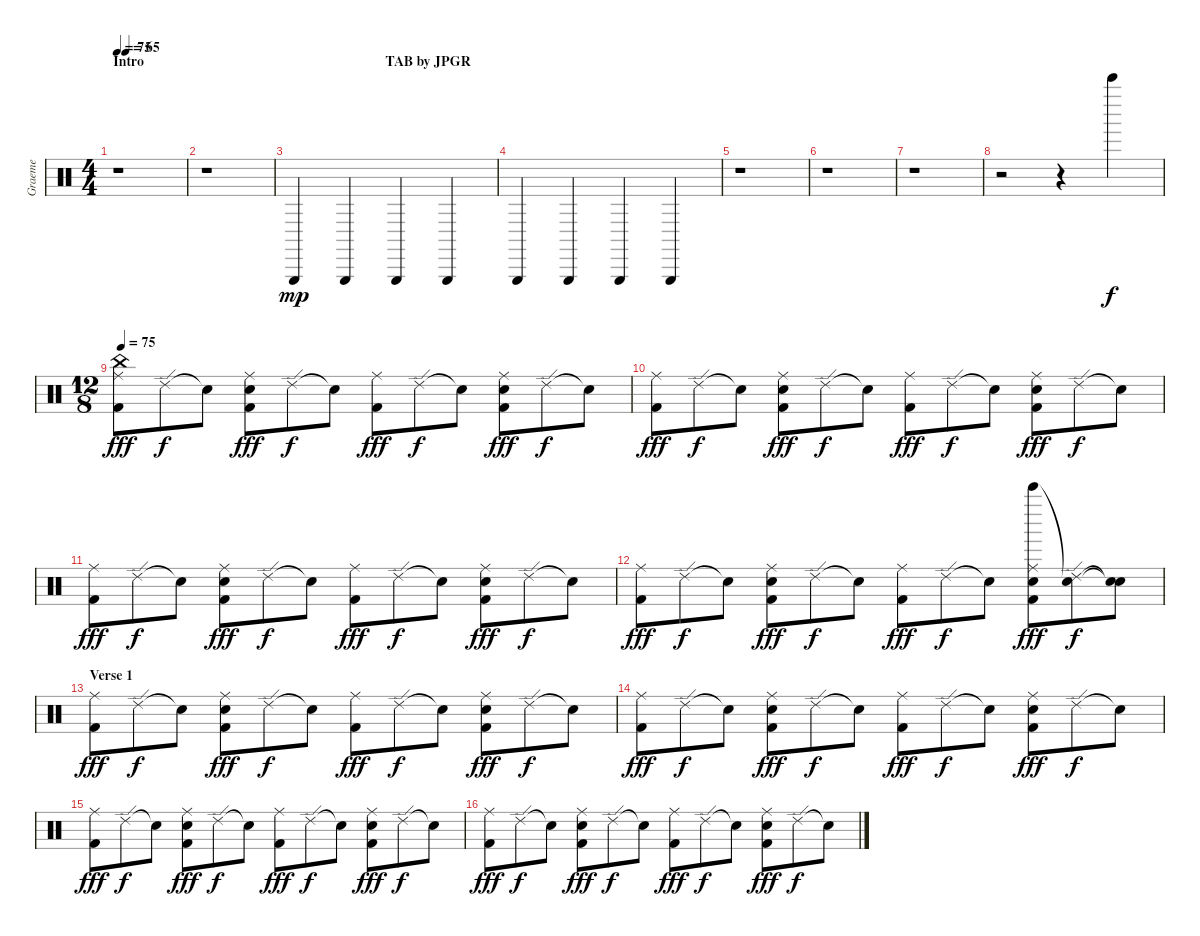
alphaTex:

\track ("Graeme" "Graeme") {instrument percussion}
\staff {score}
\articulation defaults
\ts (4 4)
\section ("" "Intro                                                                     TAB by JPGR")
\tempo 75
\tempo (65 0.125)
\tempo 75
\clef neutral
\ks c
r.1{dy mp} |
r.1 |
"Triangle (hit)".4 "Triangle (hit)".4 "Triangle (hit)".4 "Triangle (hit)".4 |
"Triangle (hit)".4 "Triangle (hit)".4 "Triangle (hit)".4 "Triangle (hit)".4 |
r.1 |
r.1 |
r.1 |
r.2 r.4 "Bell Tree (hit)".4{dy f} |
\ts (12 8)
\tempo 75
("China (hit)" "Ride (middle)" "Kick (hit) 2").8{dy fff} "Ride (edge) 2".8{dy f} "Snare (hit)"{t}.8 ("Ride (middle)" "Electric Snare (hit)" "Kick (hit) 2").8{dy fff} "Ride (edge) 2".8{dy f} "Snare (hit)"{t}.8 ("Ride (middle)" "Kick (hit) 2").8{dy fff} "Ride (edge) 2".8{dy f} "Snare (hit)"{t}.8 ("Ride (middle)" "Electric Snare (hit)" "Kick (hit) 2").8{dy fff} "Ride (edge) 2".8{dy f} "Snare (hit)"{t}.8 |
("Ride (middle)" "Kick (hit) 2").8{dy fff} "Ride (edge) 2".8{dy f} "Snare (hit)"{t}.8 ("Ride (middle)" "Electric Snare (hit)" "Kick (hit) 2").8{dy fff} "Ride (edge) 2".8{dy f} "Snare (hit)"{t}.8 ("Ride (middle)" "Kick (hit) 2").8{dy fff} "Ride (edge) 2".8{dy f} "Snare (hit)"{t}.8 ("Ride (middle)" "Electric Snare (hit)" "Kick (hit) 2").8{dy fff} "Ride (edge) 2".8{dy f} "Snare (hit)"{t}.8 |
("Ride (middle)" "Kick (hit) 2").8{dy fff} "Ride (edge) 2".8{dy f} "Snare (hit)"{t}.8 ("Ride (middle)" "Electric Snare (hit)" "Kick (hit) 2").8{dy fff} "Ride (edge) 2".8{dy f} "Snare (hit)"{t}.8 ("Ride (middle)" "Kick (hit) 2").8{dy fff} "Ride (edge) 2".8{dy f} "Snare (hit)"{t}.8 ("Ride (middle)" "Electric Snare (hit)" "Kick (hit) 2").8{dy fff} "Ride (edge) 2".8{dy f} "Snare (hit)"{t}.8 |
("Ride (middle)" "Kick (hit) 2").8{dy fff} "Ride (edge) 2".8{dy f} "Snare (hit)"{t}.8 ("Ride (middle)" "Electric Snare (hit)" "Kick (hit) 2").8{dy fff} "Ride (edge) 2".8{dy f} "Snare (hit)"{t}.8 ("Ride (middle)" "Kick (hit) 2").8{dy fff} "Ride (edge) 2".8{dy f} "Snare (hit)"{t}.8 ("Bell Tree (hit)" "Ride (middle)" "Electric Snare (hit)" "Kick (hit) 2").8{dy fff} ("Snare (hit)"{t} "Ride (edge) 2").8{dy f} ("Snare (hit)"{t} "Snare (hit)"{t}).8 |
\section ("" "Verse 1")
("Ride (middle)" "Kick (hit) 2").8{dy fff} "Ride (edge) 2".8{dy f} "Snare (hit)"{t}.8 ("Ride (middle)" "Electric Snare (hit)" "Kick (hit) 2").8{dy fff} "Ride (edge) 2".8{dy f} "Snare (hit)"{t}.8 ("Ride (middle)" "Kick (hit) 2").8{dy fff} "Ride (edge) 2".8{dy f} "Snare (hit)"{t}.8 ("Ride (middle)" "Electric Snare (hit)" "Kick (hit) 2").8{dy fff} "Ride (edge) 2".8{dy f} "Snare (hit)"{t}.8 |
("Ride (middle)" "Kick (hit) 2").8{dy fff} "Ride (edge) 2".8{dy f} "Snare (hit)"{t}.8 ("Ride (middle)" "Electric Snare (hit)" "Kick (hit) 2").8{dy fff} "Ride (edge) 2".8{dy f} "Snare (hit)"{t}.8 ("Ride (middle)" "Kick (hit) 2").8{dy fff} "Ride (edge) 2".8{dy f} "Snare (hit)"{t}.8 ("Ride (middle)" "Electric Snare (hit)" "Kick (hit) 2").8{dy fff} "Ride (edge) 2".8{dy f} "Snare (hit)"{t}.8 |
("Ride (middle)" "Kick (hit) 2").8{dy fff} "Ride (edge) 2".8{dy f} "Snare (hit)"{t}.8 ("Ride (middle)" "Electric Snare (hit)" "Kick (hit) 2").8{dy fff} "Ride (edge) 2".8{dy f} "Snare (hit)"{t}.8 ("Ride (middle)" "Kick (hit) 2").8{dy fff} "Ride (edge) 2".8{dy f} "Snare (hit)"{t}.8 ("Ride (middle)" "Electric Snare (hit)" "Kick (hit) 2").8{dy fff} "Ride (edge) 2".8{dy f} "Snare (hit)"{t}.8 |
("Ride (middle)" "Kick (hit) 2").8{dy fff} "Ride (edge) 2".8{dy f} "Snare (hit)"{t}.8 ("Ride (middle)" "Electric Snare (hit)" "Kick (hit) 2").8{dy fff} "Ride (edge) 2".8{dy f} "Snare (hit)"{t}.8 ("Ride (middle)" "Kick (hit) 2").8{dy fff} "Ride (edge) 2".8{dy f} "Snare (hit)"{t}.8 ("Ride (middle)" "Electric Snare (hit)" "Kick (hit) 2").8{dy fff} "Ride (edge) 2".8{dy f} "Snare (hit)"{t}.8
